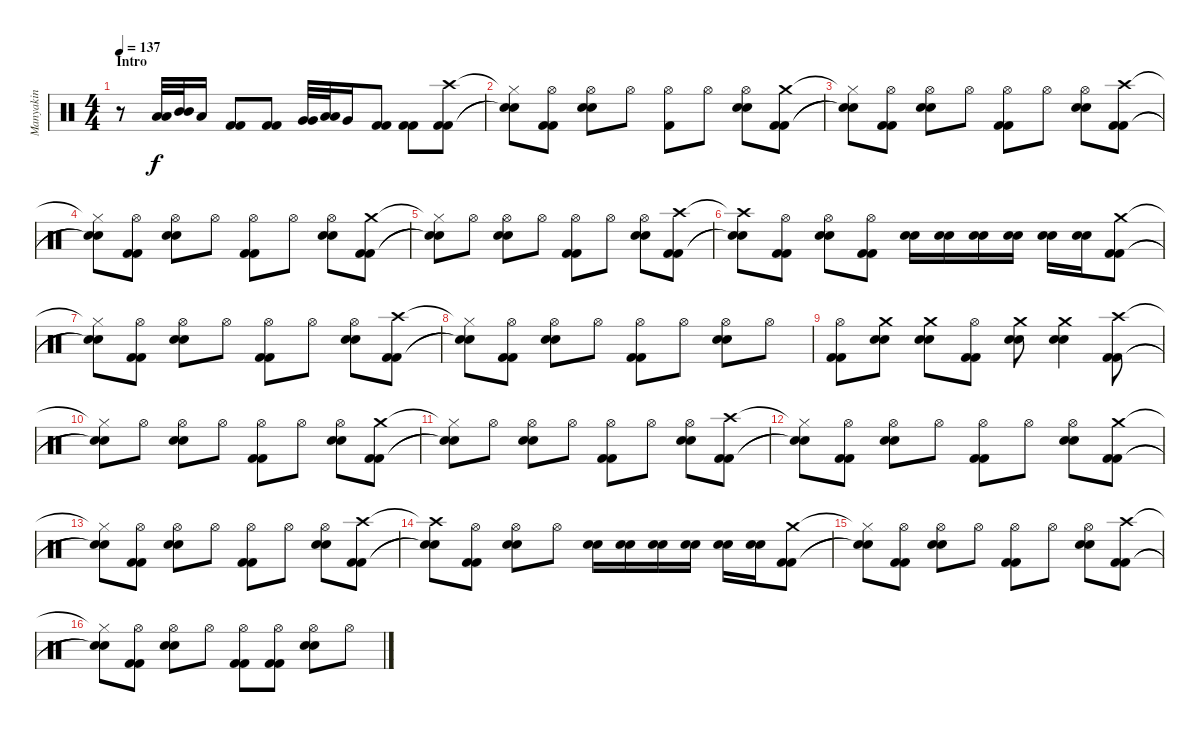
\track ("Manyakin" "Manyakin") {instrument percussion}
\staff {score}
\articulation defaults
\ts (4 4)
\section ("" "Intro")
\tempo 137
\clef neutral
\ks c
r.8{dy f} ("Low Tom (hit)" "Low Tom (hit)").32 ("Mid Tom (hit)" "Mid Tom (hit)").32 "Low Tom (hit)".16 ("Kick (hit) 2" "Kick (hit) 2").8 ("Kick (hit) 2" "Kick (hit) 2").8 ("Very Low Tom (hit)" "Very Low Tom (hit)").32 ("Low Tom (hit)" "Low Tom (hit)").32 "Very Low Tom (hit)".16 ("Kick (hit) 2" "Kick (hit) 2").8 ("Kick (hit) 2" "Kick (hit) 2").8 ("Crash high (hit)" "Kick (hit) 2" "Kick (hit) 2").8 |
("Hi-Hat (closed)"{t} "Snare (hit)"{t} "Snare (hit)"{t}).8 ("Hi-Hat (open)" "Kick (hit) 2" "Kick (hit) 2").8 ("Hi-Hat (open)" "Electric Snare (hit)" "Electric Snare (hit)").8 "Hi-Hat (open)".8 ("Hi-Hat (open)" "Kick (hit) 2").8 "Hi-Hat (open)".8 ("Hi-Hat (open)" "Electric Snare (hit)" "Electric Snare (hit)").8 ("Crash medium (hit)" "Kick (hit) 2" "Kick (hit) 2").8 |
("Hi-Hat (closed)"{t} "Snare (hit)"{t} "Snare (hit)"{t}).8 ("Hi-Hat (open)" "Kick (hit) 2" "Kick (hit) 2").8 ("Hi-Hat (open)" "Electric Snare (hit)" "Electric Snare (hit)").8 "Hi-Hat (open)".8 ("Hi-Hat (open)" "Kick (hit) 2" "Kick (hit) 2").8 "Hi-Hat (open)".8 ("Hi-Hat (open)" "Electric Snare (hit)" "Electric Snare (hit)").8 ("Crash high (hit)" "Kick (hit) 2" "Kick (hit) 2").8 |
("Hi-Hat (closed)"{t} "Snare (hit)"{t} "Snare (hit)"{t}).8 ("Hi-Hat (open)" "Kick (hit) 2" "Kick (hit) 2").8 ("Hi-Hat (open)" "Electric Snare (hit)" "Electric Snare (hit)").8 "Hi-Hat (open)".8 ("Hi-Hat (open)" "Kick (hit) 2" "Kick (hit) 2").8 "Hi-Hat (open)".8 ("Hi-Hat (open)" "Electric Snare (hit)" "Electric Snare (hit)").8 ("Crash medium (hit)" "Kick (hit) 2" "Kick (hit) 2").8 |
("Hi-Hat (closed)"{t} "Snare (hit)"{t} "Snare (hit)"{t}).8 "Hi-Hat (open)".8 ("Hi-Hat (open)" "Electric Snare (hit)" "Electric Snare (hit)").8 "Hi-Hat (open)".8 ("Hi-Hat (open)" "Kick (hit) 2" "Kick (hit) 2").8 "Hi-Hat (open)".8 ("Hi-Hat (open)" "Electric Snare (hit)" "Electric Snare (hit)").8 ("Crash high (hit)" "Kick (hit) 2" "Kick (hit) 2").8 |
("Crash high (hit)"{t} "Snare (hit)"{t} "Snare (hit)"{t}).8 ("Hi-Hat (open)" "Kick (hit) 2" "Kick (hit) 2").8 ("Hi-Hat (open)" "Electric Snare (hit)" "Electric Snare (hit)").8 ("Hi-Hat (open)" "Kick (hit) 2" "Kick (hit) 2").8 ("Electric Snare (hit)" "Electric Snare (hit)").16 ("Electric Snare (hit)" "Electric Snare (hit)").16 ("Electric Snare (hit)" "Electric Snare (hit)").16 ("Electric Snare (hit)" "Electric Snare (hit)").16 ("Electric Snare (hit)" "Electric Snare (hit)").16 ("Electric Snare (hit)" "Electric Snare (hit)").16 ("Crash medium (hit)" "Kick (hit) 2" "Kick (hit) 2").8 |
("Hi-Hat (closed)"{t} "Snare (hit)"{t} "Snare (hit)"{t}).8 ("Hi-Hat (open)" "Kick (hit) 2" "Kick (hit) 2").8 ("Hi-Hat (open)" "Electric Snare (hit)" "Electric Snare (hit)").8 "Hi-Hat (open)".8 ("Hi-Hat (open)" "Kick (hit) 2" "Kick (hit) 2").8 "Hi-Hat (open)".8 ("Hi-Hat (open)" "Electric Snare (hit)" "Electric Snare (hit)").8 ("Crash high (hit)" "Kick (hit) 2" "Kick (hit) 2").8 |
("Hi-Hat (closed)"{t} "Snare (hit)"{t} "Snare (hit)"{t}).8 ("Hi-Hat (open)" "Kick (hit) 2" "Kick (hit) 2").8 ("Hi-Hat (open)" "Electric Snare (hit)" "Electric Snare (hit)").8 "Hi-Hat (open)".8 ("Hi-Hat (open)" "Kick (hit) 2" "Kick (hit) 2").8 "Hi-Hat (open)".8 ("Hi-Hat (open)" "Electric Snare (hit)" "Electric Snare (hit)").8 "Hi-Hat (open)".8 |
("Hi-Hat (open)" "Kick (hit) 2" "Kick (hit) 2").8 ("Crash medium (hit)" "Electric Snare (hit)" "Electric Snare (hit)").8 ("Crash medium (hit)" "Electric Snare (hit)" "Electric Snare (hit)").8 ("Hi-Hat (open)" "Kick (hit) 2" "Kick (hit) 2").8 ("Crash medium (hit)" "Electric Snare (hit)" "Electric Snare (hit)").8 ("Crash medium (hit)" "Electric Snare (hit)" "Electric Snare (hit)").4 ("Crash high (hit)" "Kick (hit) 2" "Kick (hit) 2").8 |
("Hi-Hat (closed)"{t} "Snare (hit)"{t} "Snare (hit)"{t}).8 "Hi-Hat (open)".8 ("Hi-Hat (open)" "Electric Snare (hit)" "Electric Snare (hit)").8 "Hi-Hat (open)".8 ("Hi-Hat (open)" "Kick (hit) 2" "Kick (hit) 2").8 "Hi-Hat (open)".8 ("Hi-Hat (open)" "Electric Snare (hit)" "Electric Snare (hit)").8 ("Crash medium (hit)" "Kick (hit) 2" "Kick (hit) 2").8 |
("Hi-Hat (closed)"{t} "Snare (hit)"{t} "Snare (hit)"{t}).8 "Hi-Hat (open)".8 ("Hi-Hat (open)" "Electric Snare (hit)" "Electric Snare (hit)").8 "Hi-Hat (open)".8 ("Hi-Hat (open)" "Kick (hit) 2" "Kick (hit) 2").8 "Hi-Hat (open)".8 ("Hi-Hat (open)" "Electric Snare (hit)" "Electric Snare (hit)").8 ("Crash high (hit)" "Kick (hit) 2" "Kick (hit) 2").8 |
("Hi-Hat (closed)"{t} "Snare (hit)"{t} "Snare (hit)"{t}).8 ("Hi-Hat (open)" "Kick (hit) 2" "Kick (hit) 2").8 ("Hi-Hat (open)" "Electric Snare (hit)" "Electric Snare (hit)").8 "Hi-Hat (open)".8 ("Hi-Hat (open)" "Kick (hit) 2" "Kick (hit) 2").8 "Hi-Hat (open)".8 ("Hi-Hat (open)" "Electric Snare (hit)" "Electric Snare (hit)").8 ("Crash medium (hit)" "Kick (hit) 2" "Kick (hit) 2").8 |
("Hi-Hat (closed)"{t} "Snare (hit)"{t} "Snare (hit)"{t}).8 ("Hi-Hat (open)" "Kick (hit) 2" "Kick (hit) 2").8 ("Hi-Hat (open)" "Electric Snare (hit)" "Electric Snare (hit)").8 "Hi-Hat (open)".8 ("Hi-Hat (open)" "Kick (hit) 2" "Kick (hit) 2").8 "Hi-Hat (open)".8 ("Hi-Hat (open)" "Electric Snare (hit)" "Electric Snare (hit)").8 ("Crash high (hit)" "Kick (hit) 2" "Kick (hit) 2").8 |
("Crash high (hit)"{t} "Snare (hit)"{t} "Snare (hit)"{t}).8 ("Hi-Hat (open)" "Kick (hit) 2" "Kick (hit) 2").8 ("Hi-Hat (open)" "Electric Snare (hit)" "Electric Snare (hit)").8 "Hi-Hat (open)".8 ("Electric Snare (hit)" "Electric Snare (hit)").16 ("Electric Snare (hit)" "Electric Snare (hit)").16 ("Electric Snare (hit)" "Electric Snare (hit)").16 ("Electric Snare (hit)" "Electric Snare (hit)").16 ("Electric Snare (hit)" "Electric Snare (hit)").16 ("Electric Snare (hit)" "Electric Snare (hit)").16 ("Crash medium (hit)" "Kick (hit) 2" "Kick (hit) 2").8 |
("Hi-Hat (closed)"{t} "Snare (hit)"{t} "Snare (hit)"{t}).8 ("Hi-Hat (open)" "Kick (hit) 2" "Kick (hit) 2").8 ("Hi-Hat (open)" "Electric Snare (hit)" "Electric Snare (hit)").8 "Hi-Hat (open)".8 ("Hi-Hat (open)" "Kick (hit) 2" "Kick (hit) 2").8 "Hi-Hat (open)".8 ("Hi-Hat (open)" "Electric Snare (hit)" "Electric Snare (hit)").8 ("Crash high (hit)" "Kick (hit) 2" "Kick (hit) 2").8 |
("Hi-Hat (closed)"{t} "Snare (hit)"{t} "Snare (hit)"{t}).8 ("Hi-Hat (open)" "Kick (hit) 2" "Kick (hit) 2").8 ("Hi-Hat (open)" "Electric Snare (hit)" "Electric Snare (hit)").8 "Hi-Hat (open)".8 ("Hi-Hat (open)" "Kick (hit) 2" "Kick (hit) 2").8 ("Hi-Hat (open)" "Kick (hit) 2" "Kick (hit) 2").8 ("Hi-Hat (open)" "Electric Snare (hit)" "Electric Snare (hit)").8 "Hi-Hat (open)".8
